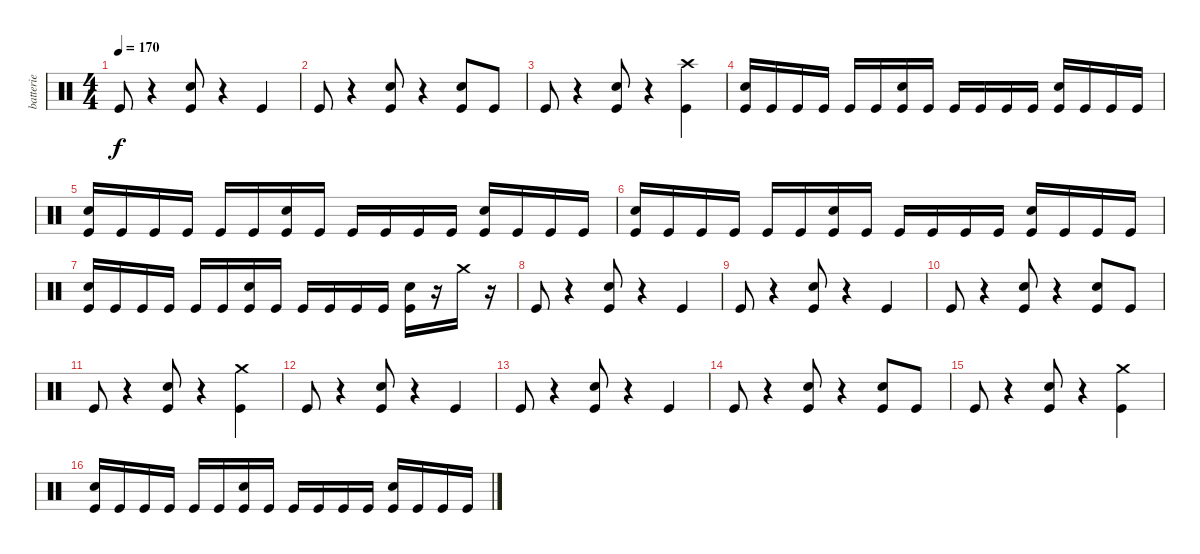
\track ("batterie" "batterie") {instrument percussion}
\staff {score}
\articulation defaults
\ts (4 4)
\tempo 170
\clef neutral
\ks c "Kick (hit)".8{dy f}
r.4 ("Electric Snare (hit)" "Kick (hit)").8 r.4 "Kick (hit)".4 |
"Kick (hit)".8 r.4 ("Electric Snare (hit)" "Kick (hit)").8 r.4 ("Electric Snare (hit)" "Kick (hit)").8 "Kick (hit)".8 |
"Kick (hit)".8 r.4 ("Electric Snare (hit)" "Kick (hit)").8 r.4 ("Crash high (hit)" "Kick (hit)").4 |
("Electric Snare (hit)" "Kick (hit)").16 "Kick (hit)".16 "Kick (hit)".16 "Kick (hit)".16 "Kick (hit)".16 "Kick (hit)".16 ("Electric Snare (hit)" "Kick (hit)").16 "Kick (hit)".16 "Kick (hit)".16 "Kick (hit)".16 "Kick (hit)".16 "Kick (hit)".16 ("Electric Snare (hit)" "Kick (hit)").16 "Kick (hit)".16 "Kick (hit)".16 "Kick (hit)".16 |
("Electric Snare (hit)" "Kick (hit)").16 "Kick (hit)".16 "Kick (hit)".16 "Kick (hit)".16 "Kick (hit)".16 "Kick (hit)".16 ("Electric Snare (hit)" "Kick (hit)").16 "Kick (hit)".16 "Kick (hit)".16 "Kick (hit)".16 "Kick (hit)".16 "Kick (hit)".16 ("Electric Snare (hit)" "Kick (hit)").16 "Kick (hit)".16 "Kick (hit)".16 "Kick (hit)".16 |
("Electric Snare (hit)" "Kick (hit)").16 "Kick (hit)".16 "Kick (hit)".16 "Kick (hit)".16 "Kick (hit)".16 "Kick (hit)".16 ("Electric Snare (hit)" "Kick (hit)").16 "Kick (hit)".16 "Kick (hit)".16 "Kick (hit)".16 "Kick (hit)".16 "Kick (hit)".16 ("Electric Snare (hit)" "Kick (hit)").16 "Kick (hit)".16 "Kick (hit)".16 "Kick (hit)".16 |
("Electric Snare (hit)" "Kick (hit)").16 "Kick (hit)".16 "Kick (hit)".16 "Kick (hit)".16 "Kick (hit)".16 "Kick (hit)".16 ("Electric Snare (hit)" "Kick (hit)").16 "Kick (hit)".16 "Kick (hit)".16 "Kick (hit)".16 "Kick (hit)".16 "Kick (hit)".16 ("Electric Snare (hit)" "Kick (hit)").16 r.16 "Crash medium (hit)".16 r.16 |
"Kick (hit)".8 r.4 ("Electric Snare (hit)" "Kick (hit)").8 r.4 "Kick (hit)".4 |
"Kick (hit)".8 r.4 ("Electric Snare (hit)" "Kick (hit)").8 r.4 "Kick (hit)".4 |
"Kick (hit)".8 r.4 ("Electric Snare (hit)" "Kick (hit)").8 r.4 ("Electric Snare (hit)" "Kick (hit)").8 "Kick (hit)".8 |
"Kick (hit)".8 r.4 ("Electric Snare (hit)" "Kick (hit)").8 r.4 ("Crash medium (hit)" "Kick (hit)").4 |
"Kick (hit)".8 r.4 ("Electric Snare (hit)" "Kick (hit)").8 r.4 "Kick (hit)".4 |
"Kick (hit)".8 r.4 ("Electric Snare (hit)" "Kick (hit)").8 r.4 "Kick (hit)".4 |
"Kick (hit)".8 r.4 ("Electric Snare (hit)" "Kick (hit)").8 r.4 ("Electric Snare (hit)" "Kick (hit)").8 "Kick (hit)".8 |
"Kick (hit)".8 r.4 ("Electric Snare (hit)" "Kick (hit)").8 r.4 ("Crash medium (hit)" "Kick (hit)").4 |
("Electric Snare (hit)" "Kick (hit)").16 "Kick (hit)".16 "Kick (hit)".16 "Kick (hit)".16 "Kick (hit)".16 "Kick (hit)".16 ("Electric Snare (hit)" "Kick (hit)").16 "Kick (hit)".16 "Kick (hit)".16 "Kick (hit)".16 "Kick (hit)".16 "Kick (hit)".16 ("Electric Snare (hit)" "Kick (hit)").16 "Kick (hit)".16 "Kick (hit)".16 "Kick (hit)".16
